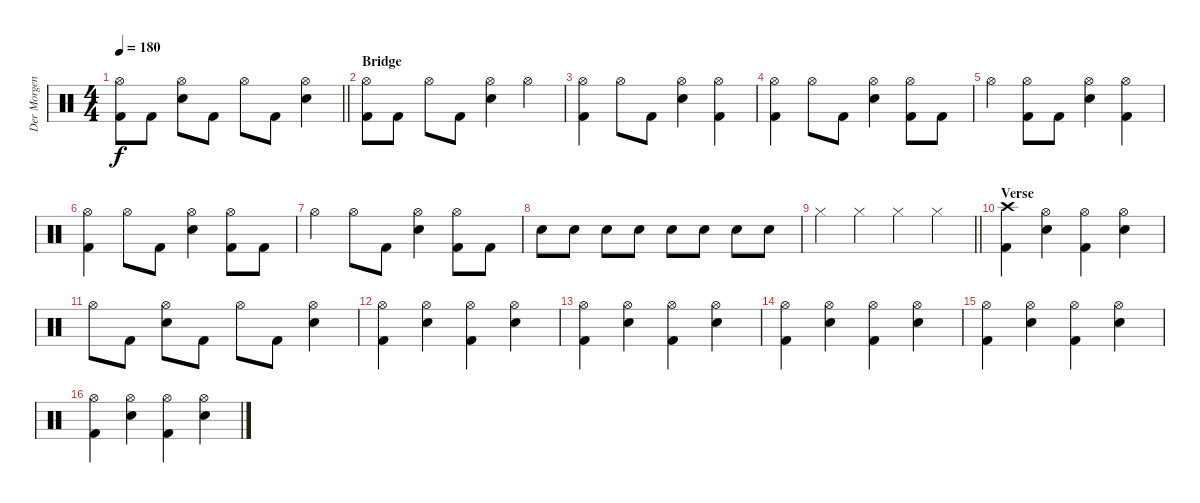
\track ("Der Morgenstern" "Der Morgen") {instrument percussion}
\staff {score}
\articulation defaults
\ts (4 4)
\tempo 180
\clef neutral
\barLineRight lightlight
\ks c
("Hi-Hat (open)" "Kick (hit) 2").8{dy f} "Kick (hit) 2".8 ("Hi-Hat (open)" "Electric Snare (hit)").8 "Kick (hit) 2".8 "Hi-Hat (open)".8 "Kick (hit) 2".8 ("Hi-Hat (open)" "Electric Snare (hit)").4 |
\section ("" "Bridge")
("Hi-Hat (open)" "Kick (hit) 2").8 "Kick (hit) 2".8 "Hi-Hat (open)".8 "Kick (hit) 2".8 ("Hi-Hat (open)" "Electric Snare (hit)").4 "Hi-Hat (open)".4 |
("Hi-Hat (open)" "Kick (hit) 2").4 "Hi-Hat (open)".8 "Kick (hit) 2".8 ("Hi-Hat (open)" "Electric Snare (hit)").4 ("Hi-Hat (open)" "Kick (hit) 2").4 |
("Hi-Hat (open)" "Kick (hit) 2").4 "Hi-Hat (open)".8 "Kick (hit) 2".8 ("Hi-Hat (open)" "Electric Snare (hit)").4 ("Hi-Hat (open)" "Kick (hit) 2").8 "Kick (hit) 2".8 |
"Hi-Hat (open)".4 ("Hi-Hat (open)" "Kick (hit) 2").8 "Kick (hit) 2".8 ("Hi-Hat (open)" "Electric Snare (hit)").4 ("Hi-Hat (open)" "Kick (hit) 2").4 |
("Hi-Hat (open)" "Kick (hit) 2").4 "Hi-Hat (open)".8 "Kick (hit) 2".8 ("Hi-Hat (open)" "Electric Snare (hit)").4 ("Hi-Hat (open)" "Kick (hit) 2").8 "Kick (hit) 2".8 |
"Hi-Hat (open)".4 "Hi-Hat (open)".8 "Kick (hit) 2".8 ("Hi-Hat (open)" "Electric Snare (hit)").4 ("Hi-Hat (open)" "Kick (hit) 2").8 "Kick (hit) 2".8 |
"Electric Snare (hit)".8 "Electric Snare (hit)".8 "Electric Snare (hit)".8 "Electric Snare (hit)".8 "Electric Snare (hit)".8 "Electric Snare (hit)".8 "Electric Snare (hit)".8 "Electric Snare (hit)".8 |
\barLineRight lightlight "Hi-Hat (closed)".4 "Hi-Hat (closed)".4 "Hi-Hat (closed)".4 "Hi-Hat (closed)".4
|
\section ("" "Verse")
("Crash high (hit)" "Kick (hit) 2").4 ("Hi-Hat (open)" "Electric Snare (hit)").4 ("Hi-Hat (open)" "Kick (hit) 2").4 ("Hi-Hat (open)" "Electric Snare (hit)").4 |
"Hi-Hat (open)".8 "Kick (hit) 2".8 ("Hi-Hat (open)" "Electric Snare (hit)").8 "Kick (hit) 2".8 "Hi-Hat (open)".8 "Kick (hit) 2".8 ("Hi-Hat (open)" "Electric Snare (hit)").4 |
("Hi-Hat (open)" "Kick (hit) 2").4 ("Hi-Hat (open)" "Electric Snare (hit)").4 ("Hi-Hat (open)" "Kick (hit) 2").4 ("Hi-Hat (open)" "Electric Snare (hit)").4 |
("Hi-Hat (open)" "Kick (hit) 2").4 ("Hi-Hat (open)" "Electric Snare (hit)").4 ("Hi-Hat (open)" "Kick (hit) 2").4 ("Hi-Hat (open)" "Electric Snare (hit)").4 |
("Hi-Hat (open)" "Kick (hit) 2").4 ("Hi-Hat (open)" "Electric Snare (hit)").4 ("Hi-Hat (open)" "Kick (hit) 2").4 ("Hi-Hat (open)" "Electric Snare (hit)").4 |
("Hi-Hat (open)" "Kick (hit) 2").4 ("Hi-Hat (open)" "Electric Snare (hit)").4 ("Hi-Hat (open)" "Kick (hit) 2").4 ("Hi-Hat (open)" "Electric Snare (hit)").4 |
("Hi-Hat (open)" "Kick (hit) 2").4 ("Hi-Hat (open)" "Electric Snare (hit)").4 ("Hi-Hat (open)" "Kick (hit) 2").4 ("Hi-Hat (open)" "Electric Snare (hit)").4
